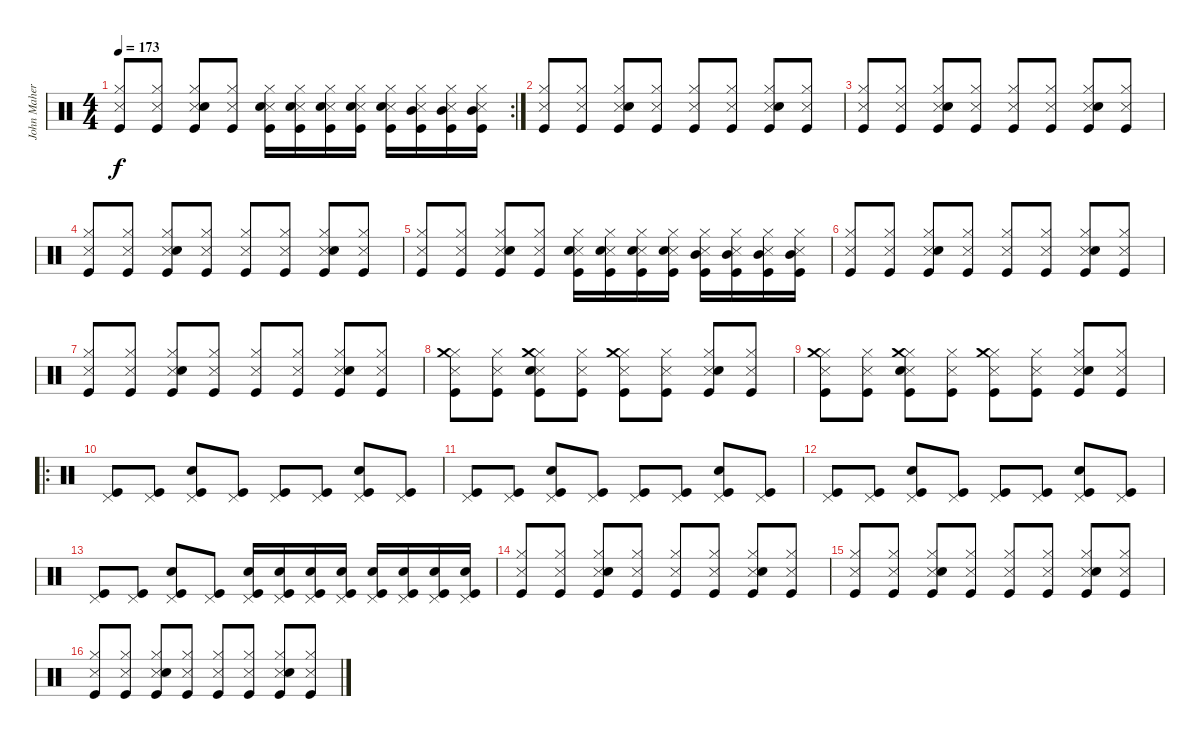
\track ("John Maher" "John Maher") {instrument percussion}
\staff {score}
\articulation defaults
\rc 2
\ts (4 4)
\tempo 173
\clef neutral
\ks c
("Snare (side stick) 3" "Hi-Hat (closed)" "Kick (hit)").8{dy f} ("Snare (side stick) 3" "Hi-Hat (closed)" "Kick (hit)").8 ("Snare (side stick) 3" "Hi-Hat (closed)" "Snare (hit) 2" "Kick (hit)").8 ("Snare (side stick) 3" "Hi-Hat (closed)" "Kick (hit)").8 ("Snare (side stick) 3" "Hi-Hat (closed)" "Snare (hit) 2" "Kick (hit)").16 ("Snare (side stick) 3" "Hi-Hat (closed)" "Snare (hit) 2" "Kick (hit)").16 ("Snare (side stick) 3" "Hi-Hat (closed)" "Snare (hit) 2" "Kick (hit)").16 ("Snare (side stick) 3" "Hi-Hat (closed)" "Snare (hit) 2" "Kick (hit)").16 ("Snare (side stick) 3" "Hi-Hat (closed)" "Snare (hit)" "Kick (hit)").16 ("Snare (side stick) 3" "Hi-Hat (closed)" "Mid Tom (hit)" "Kick (hit)").16 ("Snare (side stick) 3" "Hi-Hat (closed)" "Mid Tom (hit)" "Kick (hit)").16 ("Snare (side stick) 3" "Hi-Hat (closed)" "Mid Tom (hit)" "Kick (hit)").16 |
("Snare (side stick) 3" "Hi-Hat (closed)" "Kick (hit)").8 ("Snare (side stick) 3" "Hi-Hat (closed)" "Kick (hit)").8 ("Snare (side stick) 3" "Hi-Hat (closed)" "Snare (hit) 2" "Kick (hit)").8 ("Snare (side stick) 3" "Hi-Hat (closed)" "Kick (hit)").8 ("Snare (side stick) 3" "Hi-Hat (closed)" "Kick (hit)").8 ("Snare (side stick) 3" "Hi-Hat (closed)" "Kick (hit)").8 ("Snare (side stick) 3" "Hi-Hat (closed)" "Snare (hit) 2" "Kick (hit)").8 ("Snare (side stick) 3" "Hi-Hat (closed)" "Kick (hit)").8 |
("Snare (side stick) 3" "Hi-Hat (closed)" "Kick (hit)").8 ("Snare (side stick) 3" "Hi-Hat (closed)" "Kick (hit)").8 ("Snare (side stick) 3" "Hi-Hat (closed)" "Snare (hit) 2" "Kick (hit)").8 ("Snare (side stick) 3" "Hi-Hat (closed)" "Kick (hit)").8 ("Snare (side stick) 3" "Hi-Hat (closed)" "Kick (hit)").8 ("Snare (side stick) 3" "Hi-Hat (closed)" "Kick (hit)").8 ("Snare (side stick) 3" "Hi-Hat (closed)" "Snare (hit) 2" "Kick (hit)").8 ("Snare (side stick) 3" "Hi-Hat (closed)" "Kick (hit)").8 |
("Snare (side stick) 3" "Hi-Hat (closed)" "Kick (hit)").8 ("Snare (side stick) 3" "Hi-Hat (closed)" "Kick (hit)").8 ("Snare (side stick) 3" "Hi-Hat (closed)" "Snare (hit) 2" "Kick (hit)").8 ("Snare (side stick) 3" "Hi-Hat (closed)" "Kick (hit)").8 ("Snare (side stick) 3" "Hi-Hat (closed)" "Kick (hit)").8 ("Snare (side stick) 3" "Hi-Hat (closed)" "Kick (hit)").8 ("Snare (side stick) 3" "Hi-Hat (closed)" "Snare (hit) 2" "Kick (hit)").8 ("Snare (side stick) 3" "Hi-Hat (closed)" "Kick (hit)").8 |
("Snare (side stick) 3" "Hi-Hat (closed)" "Kick (hit)").8 ("Snare (side stick) 3" "Hi-Hat (closed)" "Kick (hit)").8 ("Snare (side stick) 3" "Hi-Hat (closed)" "Snare (hit) 2" "Kick (hit)").8 ("Snare (side stick) 3" "Hi-Hat (closed)" "Kick (hit)").8 ("Snare (side stick) 3" "Hi-Hat (closed)" "Snare (hit) 2" "Kick (hit)").16 ("Snare (side stick) 3" "Hi-Hat (closed)" "Snare (hit) 2" "Kick (hit)").16 ("Snare (side stick) 3" "Hi-Hat (closed)" "Snare (hit) 2" "Kick (hit)").16 ("Snare (side stick) 3" "Hi-Hat (closed)" "Snare (hit) 2" "Kick (hit)").16 ("Snare (side stick) 3" "Hi-Hat (closed)" "Mid Tom (hit)" "Kick (hit)").16 ("Snare (side stick) 3" "Hi-Hat (closed)" "Mid Tom (hit)" "Kick (hit)").16 ("Snare (side stick) 3" "Hi-Hat (closed)" "Mid Tom (hit)" "Kick (hit)").16 ("Snare (side stick) 3" "Hi-Hat (closed)" "Mid Tom (hit)" "Kick (hit)").16 |
("Snare (side stick) 3" "Hi-Hat (closed)" "Kick (hit)").8 ("Snare (side stick) 3" "Hi-Hat (closed)" "Kick (hit)").8 ("Snare (side stick) 3" "Hi-Hat (closed)" "Snare (hit) 2" "Kick (hit)").8 ("Snare (side stick) 3" "Hi-Hat (closed)" "Kick (hit)").8 ("Snare (side stick) 3" "Hi-Hat (closed)" "Kick (hit)").8 ("Snare (side stick) 3" "Hi-Hat (closed)" "Kick (hit)").8 ("Snare (side stick) 3" "Hi-Hat (closed)" "Snare (hit) 2" "Kick (hit)").8 ("Snare (side stick) 3" "Hi-Hat (closed)" "Kick (hit)").8 |
("Snare (side stick) 3" "Hi-Hat (closed)" "Kick (hit)").8 ("Snare (side stick) 3" "Hi-Hat (closed)" "Kick (hit)").8 ("Snare (side stick) 3" "Hi-Hat (closed)" "Snare (hit) 2" "Kick (hit)").8 ("Snare (side stick) 3" "Hi-Hat (closed)" "Kick (hit)").8 ("Snare (side stick) 3" "Hi-Hat (closed)" "Kick (hit)").8 ("Snare (side stick) 3" "Hi-Hat (closed)" "Kick (hit)").8 ("Snare (side stick) 3" "Hi-Hat (closed)" "Snare (hit) 2" "Kick (hit)").8 ("Snare (side stick) 3" "Hi-Hat (closed)" "Kick (hit)").8 |
("Snare (side stick) 3" "Hi-Hat (closed)" "Crash medium (hit)" "Kick (hit)").8 ("Snare (side stick) 3" "Hi-Hat (closed)" "Kick (hit)").8 ("Snare (side stick) 3" "Hi-Hat (closed)" "Crash medium (hit)" "Snare (hit) 2" "Kick (hit)").8 ("Snare (side stick) 3" "Hi-Hat (closed)" "Kick (hit)").8 ("Snare (side stick) 3" "Hi-Hat (closed)" "Crash medium (hit)" "Kick (hit)").8 ("Snare (side stick) 3" "Hi-Hat (closed)" "Kick (hit)").8 ("Snare (side stick) 3" "Hi-Hat (closed)" "Snare (hit) 2" "Kick (hit)").8 ("Snare (side stick) 3" "Hi-Hat (closed)" "Kick (hit)").8 |
("Snare (side stick) 3" "Hi-Hat (closed)" "Crash medium (hit)" "Kick (hit)").8 ("Snare (side stick) 3" "Hi-Hat (closed)" "Kick (hit)").8 ("Snare (side stick) 3" "Hi-Hat (closed)" "Crash medium (hit)" "Snare (hit) 2" "Kick (hit)").8 ("Snare (side stick) 3" "Hi-Hat (closed)" "Kick (hit)").8 ("Snare (side stick) 3" "Hi-Hat (closed)" "Crash medium (hit)" "Kick (hit)").8 ("Snare (side stick) 3" "Hi-Hat (closed)" "Kick (hit)").8 ("Snare (side stick) 3" "Hi-Hat (closed)" "Snare (hit) 2" "Kick (hit)").8 ("Snare (side stick) 3" "Hi-Hat (closed)" "Kick (hit)").8 |
\ro
("Pedal Hi-Hat (hit)" "Kick (hit)").8 ("Pedal Hi-Hat (hit)" "Kick (hit)").8 ("Pedal Hi-Hat (hit)" "Snare (hit) 2" "Kick (hit)").8 ("Pedal Hi-Hat (hit)" "Kick (hit)").8 ("Pedal Hi-Hat (hit)" "Kick (hit)").8 ("Pedal Hi-Hat (hit)" "Kick (hit)").8 ("Pedal Hi-Hat (hit)" "Snare (hit) 2" "Kick (hit)").8 ("Pedal Hi-Hat (hit)" "Kick (hit)").8 |
("Pedal Hi-Hat (hit)" "Kick (hit)").8 ("Pedal Hi-Hat (hit)" "Kick (hit)").8 ("Pedal Hi-Hat (hit)" "Snare (hit) 2" "Kick (hit)").8 ("Pedal Hi-Hat (hit)" "Kick (hit)").8 ("Pedal Hi-Hat (hit)" "Kick (hit)").8 ("Pedal Hi-Hat (hit)" "Kick (hit)").8 ("Pedal Hi-Hat (hit)" "Snare (hit) 2" "Kick (hit)").8 ("Pedal Hi-Hat (hit)" "Kick (hit)").8 |
("Pedal Hi-Hat (hit)" "Kick (hit)").8 ("Pedal Hi-Hat (hit)" "Kick (hit)").8 ("Pedal Hi-Hat (hit)" "Snare (hit) 2" "Kick (hit)").8 ("Pedal Hi-Hat (hit)" "Kick (hit)").8 ("Pedal Hi-Hat (hit)" "Kick (hit)").8 ("Pedal Hi-Hat (hit)" "Kick (hit)").8 ("Pedal Hi-Hat (hit)" "Snare (hit) 2" "Kick (hit)").8 ("Pedal Hi-Hat (hit)" "Kick (hit)").8 |
("Pedal Hi-Hat (hit)" "Kick (hit)").8 ("Pedal Hi-Hat (hit)" "Kick (hit)").8 ("Pedal Hi-Hat (hit)" "Snare (hit) 2" "Kick (hit)").8 ("Pedal Hi-Hat (hit)" "Kick (hit)").8 ("Pedal Hi-Hat (hit)" "Snare (hit) 2" "Kick (hit)").16 ("Pedal Hi-Hat (hit)" "Snare (hit) 2" "Kick (hit)").16 ("Pedal Hi-Hat (hit)" "Snare (hit) 2" "Kick (hit)").16 ("Pedal Hi-Hat (hit)" "Snare (hit) 2" "Kick (hit)").16 ("Pedal Hi-Hat (hit)" "Snare (hit) 2" "Kick (hit)").16 ("Pedal Hi-Hat (hit)" "Snare (hit) 2" "Kick (hit)").16 ("Pedal Hi-Hat (hit)" "Snare (hit) 2" "Kick (hit)").16 ("Pedal Hi-Hat (hit)" "Snare (hit) 2" "Kick (hit)").16 |
("Snare (side stick) 3" "Hi-Hat (closed)" "Kick (hit)").8 ("Snare (side stick) 3" "Hi-Hat (closed)" "Kick (hit)").8 ("Snare (side stick) 3" "Hi-Hat (closed)" "Snare (hit) 2" "Kick (hit)").8 ("Snare (side stick) 3" "Hi-Hat (closed)" "Kick (hit)").8 ("Snare (side stick) 3" "Hi-Hat (closed)" "Kick (hit)").8 ("Snare (side stick) 3" "Hi-Hat (closed)" "Kick (hit)").8 ("Snare (side stick) 3" "Hi-Hat (closed)" "Snare (hit) 2" "Kick (hit)").8 ("Snare (side stick) 3" "Hi-Hat (closed)" "Kick (hit)").8 |
("Snare (side stick) 3" "Hi-Hat (closed)" "Kick (hit)").8 ("Snare (side stick) 3" "Hi-Hat (closed)" "Kick (hit)").8 ("Snare (side stick) 3" "Hi-Hat (closed)" "Snare (hit) 2" "Kick (hit)").8 ("Snare (side stick) 3" "Hi-Hat (closed)" "Kick (hit)").8 ("Snare (side stick) 3" "Hi-Hat (closed)" "Kick (hit)").8 ("Snare (side stick) 3" "Hi-Hat (closed)" "Kick (hit)").8 ("Snare (side stick) 3" "Hi-Hat (closed)" "Snare (hit) 2" "Kick (hit)").8 ("Snare (side stick) 3" "Hi-Hat (closed)" "Kick (hit)").8 |
("Snare (side stick) 3" "Hi-Hat (closed)" "Kick (hit)").8 ("Snare (side stick) 3" "Hi-Hat (closed)" "Kick (hit)").8 ("Snare (side stick) 3" "Hi-Hat (closed)" "Snare (hit) 2" "Kick (hit)").8 ("Snare (side stick) 3" "Hi-Hat (closed)" "Kick (hit)").8 ("Snare (side stick) 3" "Hi-Hat (closed)" "Kick (hit)").8 ("Snare (side stick) 3" "Hi-Hat (closed)" "Kick (hit)").8 ("Snare (side stick) 3" "Hi-Hat (closed)" "Snare (hit) 2" "Kick (hit)").8 ("Snare (side stick) 3" "Hi-Hat (closed)" "Kick (hit)").8
